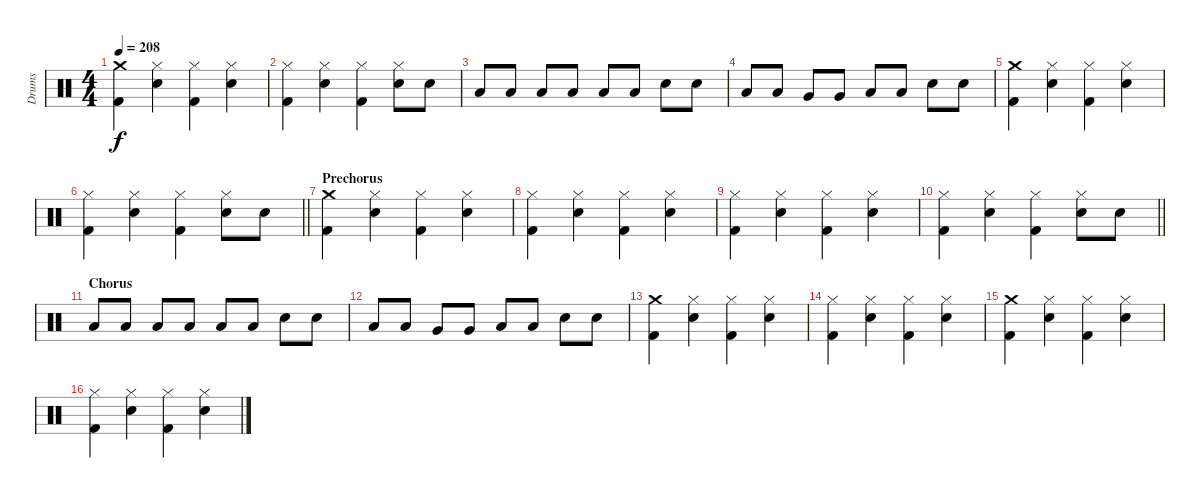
\track ("Drums" "Drums") {instrument percussion}
\staff {score}
\articulation defaults
\ts (4 4)
\tempo 208
\clef neutral
\ks c
("Crash medium (hit)" "Kick (hit) 2").4{dy f} ("Hi-Hat (closed)" "Snare (hit) 2").4 ("Hi-Hat (closed)" "Kick (hit) 2").4 ("Hi-Hat (closed)" "Snare (hit) 2").4 |
("Hi-Hat (closed)" "Kick (hit) 2").4 ("Hi-Hat (closed)" "Snare (hit) 2").4 ("Hi-Hat (closed)" "Kick (hit) 2").4 ("Hi-Hat (closed)" "Snare (hit) 2").8 "Snare (hit) 2".8 |
"Low Floor Tom (hit)".8 "Low Floor Tom (hit)".8 "Low Tom (hit)".8 "Low Tom (hit)".8 "Low Floor Tom (hit)".8 "Low Floor Tom (hit)".8 "Snare (hit) 2".8 "Snare (hit) 2".8 |
"Low Floor Tom (hit)".8 "Low Floor Tom (hit)".8 "Very Low Tom (hit)".8 "Very Low Tom (hit)".8 "Low Floor Tom (hit)".8 "Low Floor Tom (hit)".8 "Snare (hit) 2".8 "Snare (hit) 2".8 |
("Crash medium (hit)" "Kick (hit) 2").4 ("Hi-Hat (closed)" "Snare (hit) 2").4 ("Hi-Hat (closed)" "Kick (hit) 2").4 ("Hi-Hat (closed)" "Snare (hit) 2").4 |
\barLineRight lightlight
("Hi-Hat (closed)" "Kick (hit) 2").4 ("Hi-Hat (closed)" "Snare (hit) 2").4 ("Hi-Hat (closed)" "Kick (hit) 2").4 ("Hi-Hat (closed)" "Snare (hit) 2").8 "Snare (hit) 2".8 |
\section ("" "Prechorus")
("Crash medium (hit)" "Kick (hit) 2").4 ("Hi-Hat (closed)" "Snare (hit) 2").4 ("Hi-Hat (closed)" "Kick (hit) 2").4 ("Hi-Hat (closed)" "Snare (hit) 2").4 |
("Hi-Hat (closed)" "Kick (hit) 2").4 ("Hi-Hat (closed)" "Snare (hit) 2").4 ("Hi-Hat (closed)" "Kick (hit) 2").4 ("Hi-Hat (closed)" "Snare (hit) 2").4 |
("Hi-Hat (closed)" "Kick (hit) 2").4 ("Hi-Hat (closed)" "Snare (hit) 2").4 ("Hi-Hat (closed)" "Kick (hit) 2").4 ("Hi-Hat (closed)" "Snare (hit) 2").4 |
\barLineRight lightlight
("Hi-Hat (closed)" "Kick (hit) 2").4 ("Hi-Hat (closed)" "Snare (hit) 2").4 ("Hi-Hat (closed)" "Kick (hit) 2").4 ("Hi-Hat (closed)" "Snare (hit) 2").8 "Snare (hit) 2".8 |
\section ("" "Chorus")
"Low Floor Tom (hit)".8 "Low Floor Tom (hit)".8 "Low Tom (hit)".8 "Low Tom (hit)".8 "Low Floor Tom (hit)".8 "Low Floor Tom (hit)".8 "Snare (hit) 2".8 "Snare (hit) 2".8 |
"Low Floor Tom (hit)".8 "Low Floor Tom (hit)".8 "Very Low Tom (hit)".8 "Very Low Tom (hit)".8 "Low Floor Tom (hit)".8 "Low Floor Tom (hit)".8 "Snare (hit) 2".8 "Snare (hit) 2".8 |
("Crash medium (hit)" "Kick (hit) 2").4 ("Hi-Hat (closed)" "Snare (hit) 2").4 ("Hi-Hat (closed)" "Kick (hit) 2").4 ("Hi-Hat (closed)" "Snare (hit) 2").4 |
("Hi-Hat (closed)" "Kick (hit) 2").4 ("Hi-Hat (closed)" "Snare (hit) 2").4 ("Hi-Hat (closed)" "Kick (hit) 2").4 ("Hi-Hat (closed)" "Snare (hit) 2").4 |
("Crash medium (hit)" "Kick (hit) 2").4 ("Hi-Hat (closed)" "Snare (hit) 2").4 ("Hi-Hat (closed)" "Kick (hit) 2").4 ("Hi-Hat (closed)" "Snare (hit) 2").4 |
("Hi-Hat (closed)" "Kick (hit) 2").4 ("Hi-Hat (closed)" "Snare (hit) 2").4 ("Hi-Hat (closed)" "Kick (hit) 2").4 ("Hi-Hat (closed)" "Snare (hit) 2").4
